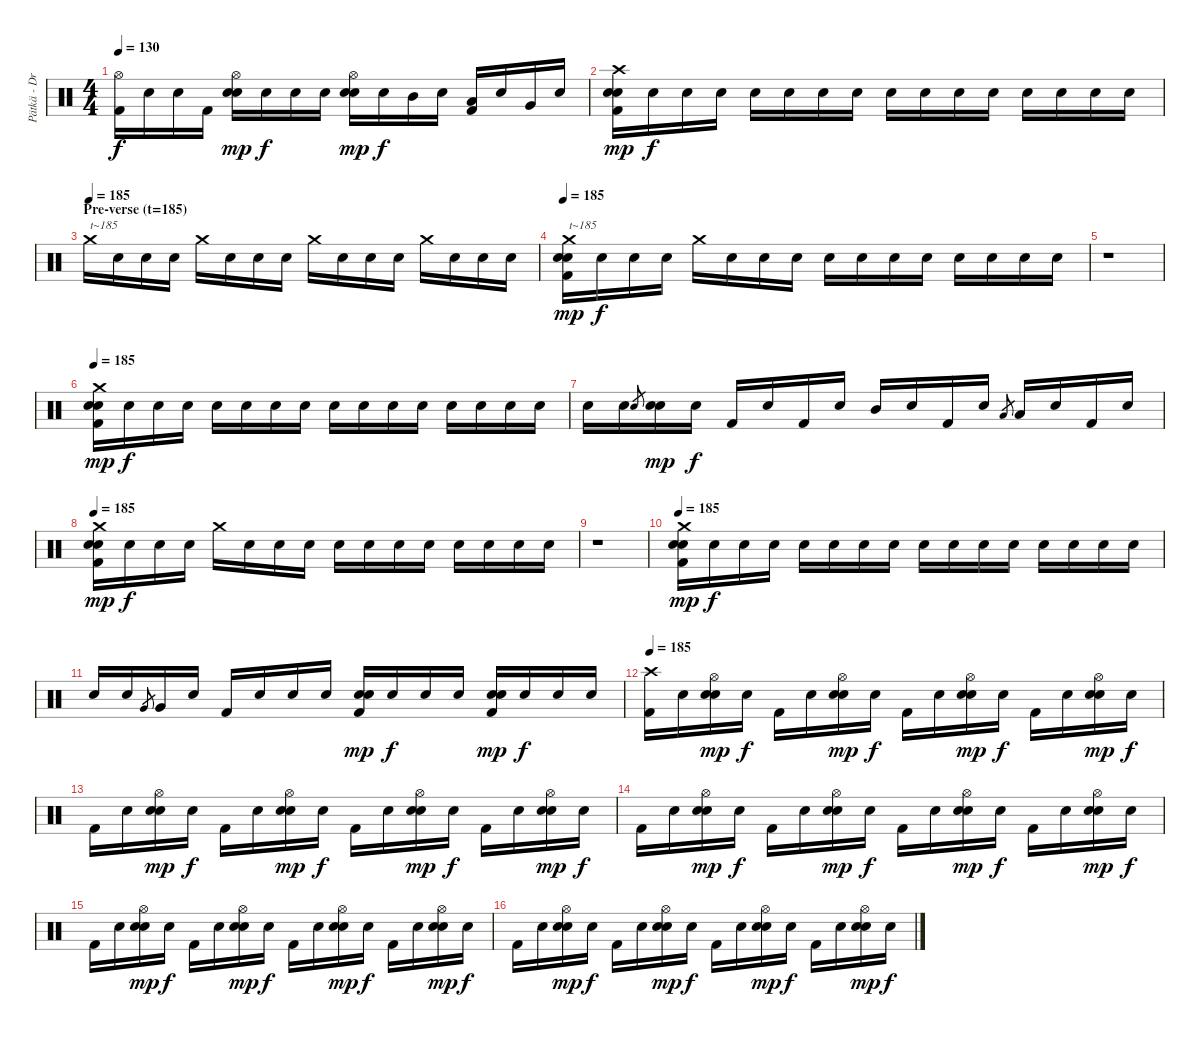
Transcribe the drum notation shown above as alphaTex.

\track ("Pätkä - Drums" "Pätkä - Dr") {instrument percussion}
\staff {score}
\articulation defaults
\ts (4 4)
\tempo 130
\clef neutral
\ks c
("Hi-Hat (open)" "Kick (hit) 2").16{dy f} "Snare (hit)".16 "Snare (hit)".16 "Kick (hit) 2".16 ("Hi-Hat (open)" "Electric Snare (hit)" "Snare (hit) 2").16{dy mp} "Snare (hit)".16{dy f} "Snare (hit)".16 "Snare (hit)".16 ("Hi-Hat (open)" "Electric Snare (hit)" "Snare (hit) 2").16{dy mp} "Snare (hit)".16{dy f} "Mid Tom (hit)".16 "Snare (hit)".16 ("Low Tom (hit)" "Kick (hit) 2").16 "Snare (hit)".16 "Very Low Tom (hit)".16 "Snare (hit)".16 |
("Crash high (hit)" "Electric Snare (hit)" "Snare (hit) 2" "Kick (hit) 2").16{dy mp} "Snare (hit)".16{dy f} "Snare (hit)".16 "Snare (hit)".16 "Snare (hit)".16 "Snare (hit)".16 "Snare (hit)".16 "Snare (hit)".16 "Snare (hit)".16 "Snare (hit)".16 "Snare (hit)".16 "Snare (hit)".16 "Snare (hit)".16 "Snare (hit)".16 "Snare (hit)".16 "Snare (hit)".16 |
\section ("" "Pre-verse (t=185)")
\tempo (185)
"Crash medium (hit)".16{txt "t~185" volume 16 balance 8} "Snare (hit)".16 "Snare (hit)".16 "Snare (hit)".16 "Crash medium (hit)".16 "Snare (hit)".16 "Snare (hit)".16 "Snare (hit)".16 "Crash medium (hit)".16 "Snare (hit)".16 "Snare (hit)".16 "Snare (hit)".16 "Crash medium (hit)".16 "Snare (hit)".16 "Snare (hit)".16 "Snare (hit)".16 |
\tempo 185
("Crash medium (hit)" "Electric Snare (hit)" "Snare (hit) 2" "Kick (hit) 2").16{txt "t~185" dy mp volume 16 balance 8} "Snare (hit)".16{dy f} "Snare (hit)".16 "Snare (hit)".16 "Crash medium (hit)"{x}.16{volume 0} "Snare (hit)".16 "Snare (hit)".16 "Snare (hit)".16 "Snare (hit)".16 "Snare (hit)".16 "Snare (hit)".16 "Snare (hit)".16 "Snare (hit)".16 "Snare (hit)".16 "Snare (hit)".16 "Snare (hit)".16 |
r.1 |
\tempo 185
("Crash medium (hit)" "Electric Snare (hit)" "Snare (hit) 2" "Kick (hit) 2").16{dy mp volume 16 balance 8} "Snare (hit)".16{dy f} "Snare (hit)".16 "Snare (hit)".16 "Snare (hit)".16 "Snare (hit)".16 "Snare (hit)".16 "Snare (hit)".16 "Snare (hit)".16 "Snare (hit)".16 "Snare (hit)".16 "Snare (hit)".16 "Snare (hit)".16 "Snare (hit)".16 "Snare (hit)".16 "Snare (hit)".16 |
"Snare (hit)".16 "Snare (hit)".16 "Electric Snare (hit)".8{gr} ("Electric Snare (hit)" "Snare (hit) 2").16{dy mp} "Snare (hit)".16{dy f} "Kick (hit) 2".16 "Snare (hit)".16 "Kick (hit) 2".16 "Snare (hit)".16 "Mid Tom (hit)".16 "Snare (hit)".16 "Kick (hit) 2".16 "Snare (hit)".16 "Low Tom (hit)".8{gr} "Low Tom (hit)".16 "Snare (hit)".16 "Kick (hit) 2".16 "Snare (hit)".16 |
\tempo 185
("Crash medium (hit)" "Electric Snare (hit)" "Snare (hit) 2" "Kick (hit) 2").16{dy mp volume 16 balance 8} "Snare (hit)".16{dy f} "Snare (hit)".16 "Snare (hit)".16 "Crash medium (hit)"{x}.16{volume 0} "Snare (hit)".16 "Snare (hit)".16 "Snare (hit)".16 "Snare (hit)".16 "Snare (hit)".16 "Snare (hit)".16 "Snare (hit)".16 "Snare (hit)".16 "Snare (hit)".16 "Snare (hit)".16 "Snare (hit)".16 |
r.1 |
\tempo 185
("Crash medium (hit)" "Electric Snare (hit)" "Snare (hit) 2" "Kick (hit) 2").16{dy mp volume 16 balance 8} "Snare (hit)".16{dy f} "Snare (hit)".16 "Snare (hit)".16 "Snare (hit)".16 "Snare (hit)".16 "Snare (hit)".16 "Snare (hit)".16 "Snare (hit)".16 "Snare (hit)".16 "Snare (hit)".16 "Snare (hit)".16 "Snare (hit)".16 "Snare (hit)".16 "Snare (hit)".16 "Snare (hit)".16 |
"Snare (hit)".16 "Snare (hit)".16 "Very Low Tom (hit)".8{gr} "Very Low Tom (hit)".16 "Snare (hit)".16 "Kick (hit) 2".16 "Snare (hit)".16 "Snare (hit)".16 "Snare (hit)".16 ("Electric Snare (hit)" "Snare (hit) 2" "Kick (hit) 2").16{dy mp} "Snare (hit)".16{dy f} "Snare (hit)".16 "Snare (hit)".16 ("Electric Snare (hit)" "Snare (hit) 2" "Kick (hit) 2").16{dy mp} "Snare (hit)".16{dy f} "Snare (hit)".16 "Snare (hit)".16 |
\section ("" "")
\tempo 185
("Crash high (hit)" "Kick (hit) 2").16{volume 16 balance 8} "Snare (hit)".16 ("Hi-Hat (open)" "Electric Snare (hit)" "Snare (hit) 2").16{dy mp} "Snare (hit)".16{dy f} "Kick (hit) 2".16 "Snare (hit)".16 ("Hi-Hat (open)" "Electric Snare (hit)" "Snare (hit) 2").16{dy mp} "Snare (hit)".16{dy f} "Kick (hit) 2".16 "Snare (hit)".16 ("Hi-Hat (open)" "Electric Snare (hit)" "Snare (hit) 2").16{dy mp} "Snare (hit)".16{dy f} "Kick (hit) 2".16 "Snare (hit)".16 ("Hi-Hat (open)" "Electric Snare (hit)" "Snare (hit) 2").16{dy mp} "Snare (hit)".16{dy f} |
"Kick (hit) 2".16 "Snare (hit)".16 ("Hi-Hat (open)" "Electric Snare (hit)" "Snare (hit) 2").16{dy mp} "Snare (hit)".16{dy f} "Kick (hit) 2".16 "Snare (hit)".16 ("Hi-Hat (open)" "Electric Snare (hit)" "Snare (hit) 2").16{dy mp} "Snare (hit)".16{dy f} "Kick (hit) 2".16 "Snare (hit)".16 ("Hi-Hat (open)" "Electric Snare (hit)" "Snare (hit) 2").16{dy mp} "Snare (hit)".16{dy f} "Kick (hit) 2".16 "Snare (hit)".16 ("Hi-Hat (open)" "Electric Snare (hit)" "Snare (hit) 2").16{dy mp} "Snare (hit)".16{dy f} |
"Kick (hit) 2".16 "Snare (hit)".16 ("Hi-Hat (open)" "Electric Snare (hit)" "Snare (hit) 2").16{dy mp} "Snare (hit)".16{dy f} "Kick (hit) 2".16 "Snare (hit)".16 ("Hi-Hat (open)" "Electric Snare (hit)" "Snare (hit) 2").16{dy mp} "Snare (hit)".16{dy f} "Kick (hit) 2".16 "Snare (hit)".16 ("Hi-Hat (open)" "Electric Snare (hit)" "Snare (hit) 2").16{dy mp} "Snare (hit)".16{dy f} "Kick (hit) 2".16 "Snare (hit)".16 ("Hi-Hat (open)" "Electric Snare (hit)" "Snare (hit) 2").16{dy mp} "Snare (hit)".16{dy f} |
"Kick (hit) 2".16 "Snare (hit)".16 ("Hi-Hat (open)" "Electric Snare (hit)" "Snare (hit) 2").16{dy mp} "Snare (hit)".16{dy f} "Kick (hit) 2".16 "Snare (hit)".16 ("Hi-Hat (open)" "Electric Snare (hit)" "Snare (hit) 2").16{dy mp} "Snare (hit)".16{dy f} "Kick (hit) 2".16 "Snare (hit)".16 ("Hi-Hat (open)" "Electric Snare (hit)" "Snare (hit) 2").16{dy mp} "Snare (hit)".16{dy f} "Kick (hit) 2".16 "Snare (hit)".16 ("Hi-Hat (open)" "Electric Snare (hit)" "Snare (hit) 2").16{dy mp} "Snare (hit)".16{dy f} |
"Kick (hit) 2".16 "Snare (hit)".16 ("Hi-Hat (open)" "Electric Snare (hit)" "Snare (hit) 2").16{dy mp} "Snare (hit)".16{dy f} "Kick (hit) 2".16 "Snare (hit)".16 ("Hi-Hat (open)" "Electric Snare (hit)" "Snare (hit) 2").16{dy mp} "Snare (hit)".16{dy f} "Kick (hit) 2".16 "Snare (hit)".16 ("Hi-Hat (open)" "Electric Snare (hit)" "Snare (hit) 2").16{dy mp} "Snare (hit)".16{dy f} "Kick (hit) 2".16 "Snare (hit)".16 ("Hi-Hat (open)" "Electric Snare (hit)" "Snare (hit) 2").16{dy mp} "Snare (hit)".16{dy f}
